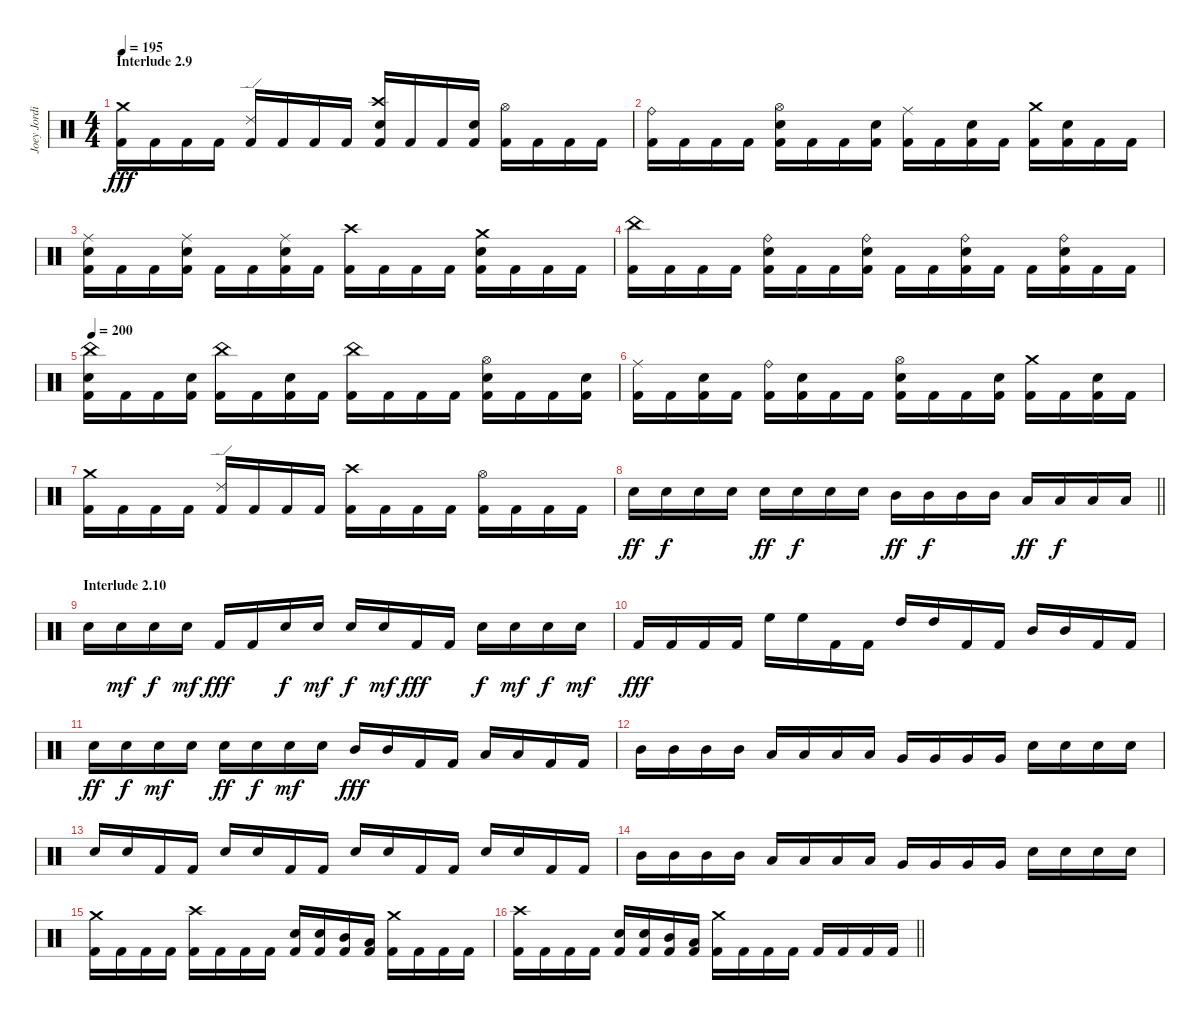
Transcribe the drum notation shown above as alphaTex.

\track ("Joey Jordison" "Joey Jordi") {instrument percussion}
\staff {score}
\articulation defaults
\ts (4 4)
\section ("" "Interlude 2.9")
\tempo 195
\clef neutral
\ks c
("Crash medium (hit)" "Kick (hit) 2").16{dy fff} "Kick (hit) 2".16 "Kick (hit) 2".16 "Kick (hit) 2".16 ("Ride (edge) 2" "Kick (hit) 2").16 "Kick (hit) 2".16 "Kick (hit) 2".16 "Kick (hit) 2".16 ("Crash high (hit)" "Electric Snare (hit)" "Kick (hit) 2").16 "Kick (hit) 2".16 "Kick (hit) 2".16 ("Electric Snare (hit)" "Kick (hit) 2").16 ("Hi-Hat (open)" "Kick (hit) 2").16 "Kick (hit) 2".16 "Kick (hit) 2".16 "Kick (hit) 2".16 |
("Ride (bell)" "Kick (hit) 2").16 "Kick (hit) 2".16 "Kick (hit) 2".16 "Kick (hit) 2".16 ("Hi-Hat (open)" "Electric Snare (hit)" "Kick (hit) 2").16 "Kick (hit) 2".16 "Kick (hit) 2".16 ("Electric Snare (hit)" "Kick (hit) 2").16 ("Ride (middle)" "Kick (hit) 2").16 "Kick (hit) 2".16 ("Electric Snare (hit)" "Kick (hit) 2").16 "Kick (hit) 2".16 ("Crash medium (hit)" "Kick (hit) 2").16 ("Electric Snare (hit)" "Kick (hit) 2").16 "Kick (hit) 2".16 "Kick (hit) 2".16 |
("Ride (middle)" "Electric Snare (hit)" "Kick (hit) 2").16 "Kick (hit) 2".16 "Kick (hit) 2".16 ("Ride (middle)" "Electric Snare (hit)" "Kick (hit) 2").16 "Kick (hit) 2".16 "Kick (hit) 2".16 ("Ride (middle)" "Electric Snare (hit)" "Kick (hit) 2").16 "Kick (hit) 2".16 ("Crash high (hit)" "Kick (hit) 2").16 "Kick (hit) 2".16 "Kick (hit) 2".16 "Kick (hit) 2".16 ("Crash medium (hit)" "Electric Snare (hit)" "Kick (hit) 2").16 "Kick (hit) 2".16 "Kick (hit) 2".16 "Kick (hit) 2".16 |
("China (hit)" "Kick (hit) 2").16 "Kick (hit) 2".16 "Kick (hit) 2".16 "Kick (hit) 2".16 ("Ride (bell)" "Electric Snare (hit)" "Kick (hit) 2").16 "Kick (hit) 2".16 "Kick (hit) 2".16 ("Ride (bell)" "Electric Snare (hit)" "Kick (hit) 2").16 "Kick (hit) 2".16 "Kick (hit) 2".16 ("Ride (bell)" "Electric Snare (hit)" "Kick (hit) 2").16 "Kick (hit) 2".16 "Kick (hit) 2".16 ("Ride (bell)" "Electric Snare (hit)" "Kick (hit) 2").16 "Kick (hit) 2".16 "Kick (hit) 2".16 |
\tempo 200
("China (hit)" "Electric Snare (hit)" "Kick (hit) 2").16 "Kick (hit) 2".16 "Kick (hit) 2".16 ("Electric Snare (hit)" "Kick (hit) 2").16 ("China (hit)" "Kick (hit) 2").16 "Kick (hit) 2".16 ("Electric Snare (hit)" "Kick (hit) 2").16 "Kick (hit) 2".16 ("China (hit)" "Kick (hit) 2").16 "Kick (hit) 2".16 "Kick (hit) 2".16 "Kick (hit) 2".16 ("Hi-Hat (open)" "Electric Snare (hit)" "Kick (hit) 2").16 "Kick (hit) 2".16 "Kick (hit) 2".16 ("Electric Snare (hit)" "Kick (hit) 2").16 |
("Ride (middle)" "Kick (hit) 2").16 "Kick (hit) 2".16 ("Electric Snare (hit)" "Kick (hit) 2").16 "Kick (hit) 2".16 ("Ride (bell)" "Kick (hit) 2").16 ("Electric Snare (hit)" "Kick (hit) 2").16 "Kick (hit) 2".16 "Kick (hit) 2".16 ("Hi-Hat (open)" "Electric Snare (hit)" "Kick (hit) 2").16 "Kick (hit) 2".16 "Kick (hit) 2".16 ("Electric Snare (hit)" "Kick (hit) 2").16 ("Crash medium (hit)" "Kick (hit) 2").16 "Kick (hit) 2".16 ("Electric Snare (hit)" "Kick (hit) 2").16 "Kick (hit) 2".16 |
("Crash medium (hit)" "Kick (hit) 2").16 "Kick (hit) 2".16 "Kick (hit) 2".16 "Kick (hit) 2".16 ("Ride (edge) 2" "Kick (hit) 2").16 "Kick (hit) 2".16 "Kick (hit) 2".16 "Kick (hit) 2".16 ("Crash high (hit)" "Kick (hit) 2").16 "Kick (hit) 2".16 "Kick (hit) 2".16 "Kick (hit) 2".16 ("Hi-Hat (open)" "Kick (hit) 2").16 "Kick (hit) 2".16 "Kick (hit) 2".16 "Kick (hit) 2".16 |
\barLineRight lightlight "Electric Snare (hit)".16{dy ff} "Electric Snare (hit)".16{dy f} "Electric Snare (hit)".16 "Electric Snare (hit)".16 "Electric Snare (hit)".16{dy ff} "Electric Snare (hit)".16{dy f} "Electric Snare (hit)".16 "Electric Snare (hit)".16 "Mid Tom (hit)".16{dy ff} "Mid Tom (hit)".16{dy f} "Mid Tom (hit)".16 "Mid Tom (hit)".16 "Low Tom (hit)".16{dy ff} "Low Tom (hit)".16{dy f} "Low Tom (hit)".16 "Low Tom (hit)".16
|
\section ("" "Interlude 2.10")
"Electric Snare (hit)".16 "Electric Snare (hit)".16{dy mf} "Electric Snare (hit)".16{dy f} "Electric Snare (hit)".16{dy mf} "Kick (hit) 2".16{dy fff} "Kick (hit) 2".16 "Electric Snare (hit)".16{dy f} "Electric Snare (hit)".16{dy mf} "Electric Snare (hit)".16{dy f} "Electric Snare (hit)".16{dy mf} "Kick (hit) 2".16{dy fff} "Kick (hit) 2".16 "Electric Snare (hit)".16{dy f} "Electric Snare (hit)".16{dy mf} "Electric Snare (hit)".16{dy f} "Electric Snare (hit)".16{dy mf} |
"Kick (hit) 2".16{dy fff} "Kick (hit) 2".16 "Kick (hit) 2".16 "Kick (hit) 2".16 "High Floor Tom (hit)".16 "High Floor Tom (hit)".16 "Kick (hit) 2".16 "Kick (hit) 2".16 "High Tom (hit)".16 "High Tom (hit)".16 "Kick (hit) 2".16 "Kick (hit) 2".16 "Mid Tom (hit)".16 "Mid Tom (hit)".16 "Kick (hit) 2".16 "Kick (hit) 2".16 |
"Electric Snare (hit)".16{dy ff} "Electric Snare (hit)".16{dy f} "Electric Snare (hit)".16{dy mf} "Electric Snare (hit)".16 "Electric Snare (hit)".16{dy ff} "Electric Snare (hit)".16{dy f} "Electric Snare (hit)".16{dy mf} "Electric Snare (hit)".16 "Mid Tom (hit)".16{dy fff} "Mid Tom (hit)".16 "Kick (hit) 2".16 "Kick (hit) 2".16 "Low Tom (hit)".16 "Low Tom (hit)".16 "Kick (hit) 2".16 "Kick (hit) 2".16 |
"Mid Tom (hit)".16 "Mid Tom (hit)".16 "Mid Tom (hit)".16 "Mid Tom (hit)".16 "Low Tom (hit)".16 "Low Tom (hit)".16 "Low Tom (hit)".16 "Low Tom (hit)".16 "Very Low Tom (hit)".16 "Very Low Tom (hit)".16 "Very Low Tom (hit)".16 "Very Low Tom (hit)".16 "Electric Snare (hit)".16 "Electric Snare (hit)".16 "Electric Snare (hit)".16 "Electric Snare (hit)".16 |
"Electric Snare (hit)".16 "Electric Snare (hit)".16 "Kick (hit) 2".16 "Kick (hit) 2".16 "Electric Snare (hit)".16 "Electric Snare (hit)".16 "Kick (hit) 2".16 "Kick (hit) 2".16 "Electric Snare (hit)".16 "Electric Snare (hit)".16 "Kick (hit) 2".16 "Kick (hit) 2".16 "Electric Snare (hit)".16 "Electric Snare (hit)".16 "Kick (hit) 2".16 "Kick (hit) 2".16 |
"Mid Tom (hit)".16 "Mid Tom (hit)".16 "Mid Tom (hit)".16 "Mid Tom (hit)".16 "Low Tom (hit)".16 "Low Tom (hit)".16 "Low Tom (hit)".16 "Low Tom (hit)".16 "Very Low Tom (hit)".16 "Very Low Tom (hit)".16 "Very Low Tom (hit)".16 "Very Low Tom (hit)".16 "Electric Snare (hit)".16 "Electric Snare (hit)".16 "Electric Snare (hit)".16 "Electric Snare (hit)".16 |
("Crash medium (hit)" "Kick (hit) 2").16 "Kick (hit) 2".16 "Kick (hit) 2".16 "Kick (hit) 2".16 ("Crash high (hit)" "Kick (hit) 2").16 "Kick (hit) 2".16 "Kick (hit) 2".16 "Kick (hit) 2".16 ("Electric Snare (hit)" "Kick (hit) 2").16 ("Electric Snare (hit)" "Kick (hit) 2").16 ("Mid Tom (hit)" "Kick (hit) 2").16 ("Low Tom (hit)" "Kick (hit) 2").16 ("Crash medium (hit)" "Kick (hit) 2").16 "Kick (hit) 2".16 "Kick (hit) 2".16 "Kick (hit) 2".16 |
\barLineRight lightlight
("Crash high (hit)" "Kick (hit) 2").16 "Kick (hit) 2".16 "Kick (hit) 2".16 "Kick (hit) 2".16 ("Electric Snare (hit)" "Kick (hit) 2").16 ("Electric Snare (hit)" "Kick (hit) 2").16 ("Mid Tom (hit)" "Kick (hit) 2").16 ("Low Tom (hit)" "Kick (hit) 2").16 ("Crash medium (hit)" "Kick (hit) 2").16 "Kick (hit) 2".16 "Kick (hit) 2".16 "Kick (hit) 2".16 "Kick (hit) 2".16 "Kick (hit) 2".16 "Kick (hit) 2".16 "Kick (hit) 2".16
